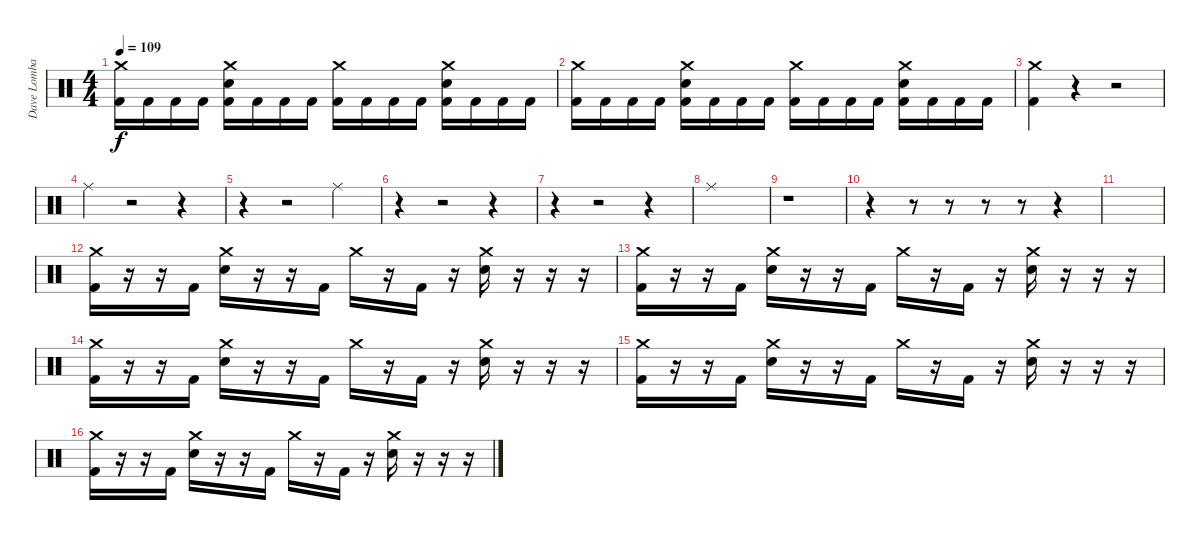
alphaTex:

\track ("Dave Lombardo" "Dave Lomba") {instrument percussion}
\staff {score}
\articulation defaults
\ts (4 4)
\tempo 109
\clef neutral
\ks c
("Crash medium (hit)" "Kick (hit) 2").16{dy f} "Kick (hit) 2".16 "Kick (hit) 2".16 "Kick (hit) 2".16 ("Crash medium (hit)" "Electric Snare (hit)" "Kick (hit) 2").16 "Kick (hit) 2".16 "Kick (hit) 2".16 "Kick (hit) 2".16 ("Crash medium (hit)" "Kick (hit) 2").16 "Kick (hit) 2".16 "Kick (hit) 2".16 "Kick (hit) 2".16 ("Crash medium (hit)" "Electric Snare (hit)" "Kick (hit) 2").16 "Kick (hit) 2".16 "Kick (hit) 2".16 "Kick (hit) 2".16 |
("Crash medium (hit)" "Kick (hit) 2").16 "Kick (hit) 2".16 "Kick (hit) 2".16 "Kick (hit) 2".16 ("Crash medium (hit)" "Electric Snare (hit)" "Kick (hit) 2").16 "Kick (hit) 2".16 "Kick (hit) 2".16 "Kick (hit) 2".16 ("Crash medium (hit)" "Kick (hit) 2").16 "Kick (hit) 2".16 "Kick (hit) 2".16 "Kick (hit) 2".16 ("Crash medium (hit)" "Electric Snare (hit)" "Kick (hit) 2").16 "Kick (hit) 2".16 "Kick (hit) 2".16 "Kick (hit) 2".16 |
("Crash medium (hit)" "Kick (hit) 2").4 r.4 r.2 |
"Ride (middle)".4 r.2 r.4 |
r.4 r.2 "Ride (middle)".4 |
r.4 r.2 r.4 |
r.4 r.2 r.4 |
"Ride (middle)".1 |
r.1 |
r.4 r.8 r.8 r.8 r.8 r.4 |
|
("Crash medium (hit)" "Kick (hit) 2").16 r.16 r.16 "Kick (hit) 2".16 ("Crash medium (hit)" "Electric Snare (hit)").16 r.16 r.16 "Kick (hit) 2".16 "Crash medium (hit)".16 r.16 "Kick (hit) 2".16 r.16 ("Crash medium (hit)" "Electric Snare (hit)").16 r.16 r.16 r.16 |
("Crash medium (hit)" "Kick (hit) 2").16 r.16 r.16 "Kick (hit) 2".16 ("Crash medium (hit)" "Electric Snare (hit)").16 r.16 r.16 "Kick (hit) 2".16 "Crash medium (hit)".16 r.16 "Kick (hit) 2".16 r.16 ("Crash medium (hit)" "Electric Snare (hit)").16 r.16 r.16 r.16 |
("Crash medium (hit)" "Kick (hit) 2").16 r.16 r.16 "Kick (hit) 2".16 ("Crash medium (hit)" "Electric Snare (hit)").16 r.16 r.16 "Kick (hit) 2".16 "Crash medium (hit)".16 r.16 "Kick (hit) 2".16 r.16 ("Crash medium (hit)" "Electric Snare (hit)").16 r.16 r.16 r.16 |
("Crash medium (hit)" "Kick (hit) 2").16 r.16 r.16 "Kick (hit) 2".16 ("Crash medium (hit)" "Electric Snare (hit)").16 r.16 r.16 "Kick (hit) 2".16 "Crash medium (hit)".16 r.16 "Kick (hit) 2".16 r.16 ("Crash medium (hit)" "Electric Snare (hit)").16 r.16 r.16 r.16 |
("Crash medium (hit)" "Kick (hit) 2").16 r.16 r.16 "Kick (hit) 2".16 ("Crash medium (hit)" "Electric Snare (hit)").16 r.16 r.16 "Kick (hit) 2".16 "Crash medium (hit)".16 r.16 "Kick (hit) 2".16 r.16 ("Crash medium (hit)" "Electric Snare (hit)").16 r.16 r.16 r.16
